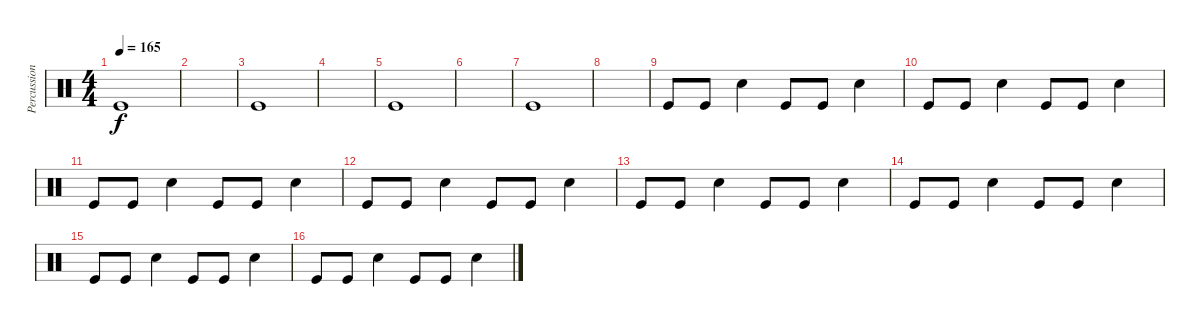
\track ("Percussion" "Percussion") {instrument percussion}
\staff {score}
\articulation defaults
\ts (4 4)
\tempo 165
\clef neutral
\ks c "Kick (hit)".1{dy f}
|
|
"Kick (hit)".1 |
|
"Kick (hit)".1 |
|
"Kick (hit)".1 |
|
"Kick (hit)".8 "Kick (hit)".8 "Snare (hit) 2".4 "Kick (hit)".8 "Kick (hit)".8 "Snare (hit) 2".4 |
"Kick (hit)".8 "Kick (hit)".8 "Snare (hit) 2".4 "Kick (hit)".8 "Kick (hit)".8 "Snare (hit) 2".4 |
"Kick (hit)".8 "Kick (hit)".8 "Snare (hit) 2".4 "Kick (hit)".8 "Kick (hit)".8 "Snare (hit) 2".4 |
"Kick (hit)".8 "Kick (hit)".8 "Snare (hit) 2".4 "Kick (hit)".8 "Kick (hit)".8 "Snare (hit) 2".4 |
"Kick (hit)".8 "Kick (hit)".8 "Snare (hit) 2".4 "Kick (hit)".8 "Kick (hit)".8 "Snare (hit) 2".4 |
"Kick (hit)".8 "Kick (hit)".8 "Snare (hit) 2".4 "Kick (hit)".8 "Kick (hit)".8 "Snare (hit) 2".4 |
"Kick (hit)".8 "Kick (hit)".8 "Snare (hit) 2".4 "Kick (hit)".8 "Kick (hit)".8 "Snare (hit) 2".4 |
"Kick (hit)".8 "Kick (hit)".8 "Snare (hit) 2".4 "Kick (hit)".8 "Kick (hit)".8 "Snare (hit) 2".4
